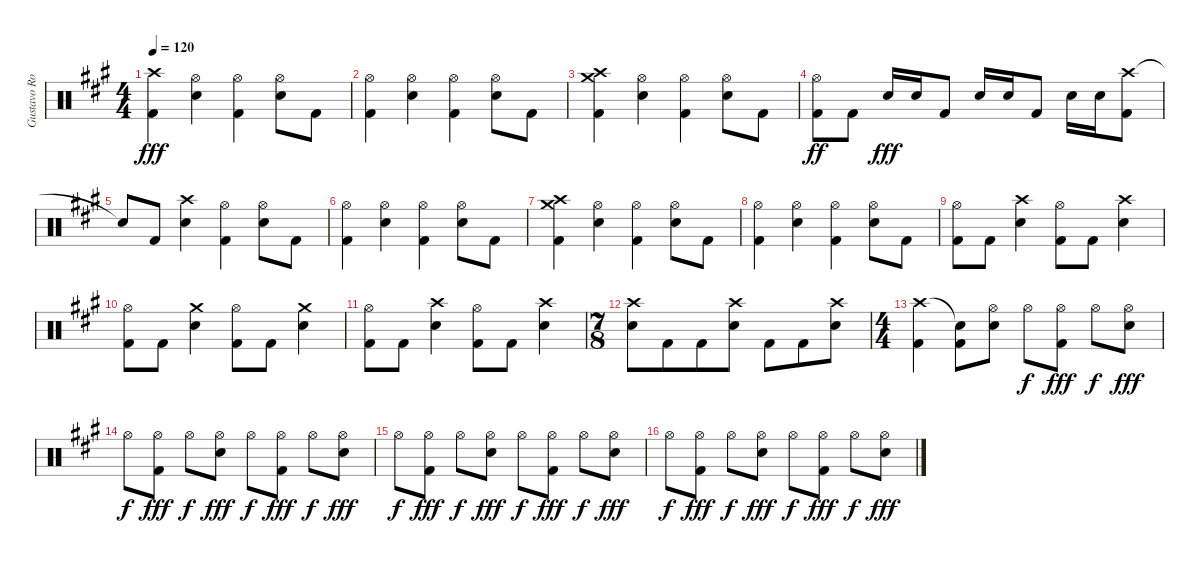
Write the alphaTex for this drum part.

\track ("Gustavo Rowek" "Gustavo Ro") {instrument percussion}
\staff {score}
\articulation defaults
\ts (4 4)
\tempo 120
\clef neutral
\ks a
("Crash high (hit)" "Kick (hit) 2").4{dy fff} ("Hi-Hat (open)" "Snare (hit) 2").4 ("Hi-Hat (open)" "Kick (hit) 2").4 ("Hi-Hat (open)" "Snare (hit) 2").8 "Kick (hit) 2".8 |
("Hi-Hat (open)" "Kick (hit) 2").4 ("Hi-Hat (open)" "Snare (hit) 2").4 ("Hi-Hat (open)" "Kick (hit) 2").4 ("Hi-Hat (open)" "Snare (hit) 2").8 "Kick (hit) 2".8 |
("Crash medium (hit)" "Crash high (hit)" "Kick (hit) 2").4 ("Hi-Hat (open)" "Snare (hit) 2").4 ("Hi-Hat (open)" "Kick (hit) 2").4 ("Hi-Hat (open)" "Snare (hit) 2").8 "Kick (hit) 2".8 |
("Hi-Hat (open)" "Kick (hit) 2").8{dy ff} "Kick (hit) 2".8 "Snare (hit) 2".16{dy fff} "Snare (hit) 2".16 "Kick (hit) 2".8 "Snare (hit) 2".16 "Snare (hit) 2".16 "Kick (hit) 2".8 "Snare (hit) 2".16 "Snare (hit) 2".16 ("Crash high (hit)" "Kick (hit) 2").8 |
"Snare (hit)"{t}.8 "Kick (hit) 2".8 ("Crash high (hit)" "Snare (hit) 2").4 ("Hi-Hat (open)" "Kick (hit) 2").4 ("Hi-Hat (open)" "Snare (hit) 2").8 "Kick (hit) 2".8 |
("Hi-Hat (open)" "Kick (hit) 2").4 ("Hi-Hat (open)" "Snare (hit) 2").4 ("Hi-Hat (open)" "Kick (hit) 2").4 ("Hi-Hat (open)" "Snare (hit) 2").8 "Kick (hit) 2".8 |
("Crash medium (hit)" "Crash high (hit)" "Kick (hit) 2").4 ("Hi-Hat (open)" "Snare (hit) 2").4 ("Hi-Hat (open)" "Kick (hit) 2").4 ("Hi-Hat (open)" "Snare (hit) 2").8 "Kick (hit) 2".8 |
("Hi-Hat (open)" "Kick (hit) 2").4 ("Hi-Hat (open)" "Snare (hit) 2").4 ("Hi-Hat (open)" "Kick (hit) 2").4 ("Hi-Hat (open)" "Snare (hit) 2").8 "Kick (hit) 2".8 |
("Hi-Hat (open)" "Kick (hit) 2").8 "Kick (hit) 2".8 ("Crash high (hit)" "Snare (hit) 2").4 ("Hi-Hat (open)" "Kick (hit) 2").8 "Kick (hit) 2".8 ("Crash high (hit)" "Snare (hit) 2").4 |
("Hi-Hat (open)" "Kick (hit) 2").8 "Kick (hit) 2".8 ("Crash medium (hit)" "Snare (hit) 2").4 ("Hi-Hat (open)" "Kick (hit) 2").8 "Kick (hit) 2".8 ("Crash medium (hit)" "Snare (hit) 2").4 |
("Hi-Hat (open)" "Kick (hit) 2").8 "Kick (hit) 2".8 ("Crash high (hit)" "Snare (hit) 2").4 ("Hi-Hat (open)" "Kick (hit) 2").8 "Kick (hit) 2".8 ("Crash high (hit)" "Snare (hit) 2").4 |
\ts (7 8)
("Crash high (hit)" "Snare (hit) 2").8 "Kick (hit) 2".8 "Kick (hit) 2".8 ("Crash high (hit)" "Snare (hit) 2").8 "Kick (hit) 2".8 "Kick (hit) 2".8 ("Crash high (hit)" "Snare (hit) 2").8 |
\ts (4 4)
("Crash high (hit)" "Kick (hit) 2").4 ("Snare (hit)"{t} "Kick (hit) 2").8 ("Hi-Hat (open)" "Snare (hit) 2").8 "Hi-Hat (open)".8{dy f} ("Hi-Hat (open)" "Kick (hit) 2").8{dy fff} "Hi-Hat (open)".8{dy f} ("Hi-Hat (open)" "Snare (hit) 2").8{dy fff} |
"Hi-Hat (open)".8{dy f} ("Hi-Hat (open)" "Kick (hit) 2").8{dy fff} "Hi-Hat (open)".8{dy f} ("Hi-Hat (open)" "Snare (hit) 2").8{dy fff} "Hi-Hat (open)".8{dy f} ("Hi-Hat (open)" "Kick (hit) 2").8{dy fff} "Hi-Hat (open)".8{dy f} ("Hi-Hat (open)" "Snare (hit) 2").8{dy fff} |
"Hi-Hat (open)".8{dy f} ("Hi-Hat (open)" "Kick (hit) 2").8{dy fff} "Hi-Hat (open)".8{dy f} ("Hi-Hat (open)" "Snare (hit) 2").8{dy fff} "Hi-Hat (open)".8{dy f} ("Hi-Hat (open)" "Kick (hit) 2").8{dy fff} "Hi-Hat (open)".8{dy f} ("Hi-Hat (open)" "Snare (hit) 2").8{dy fff} |
"Hi-Hat (open)".8{dy f} ("Hi-Hat (open)" "Kick (hit) 2").8{dy fff} "Hi-Hat (open)".8{dy f} ("Hi-Hat (open)" "Snare (hit) 2").8{dy fff} "Hi-Hat (open)".8{dy f} ("Hi-Hat (open)" "Kick (hit) 2").8{dy fff} "Hi-Hat (open)".8{dy f} ("Hi-Hat (open)" "Snare (hit) 2").8{dy fff}
